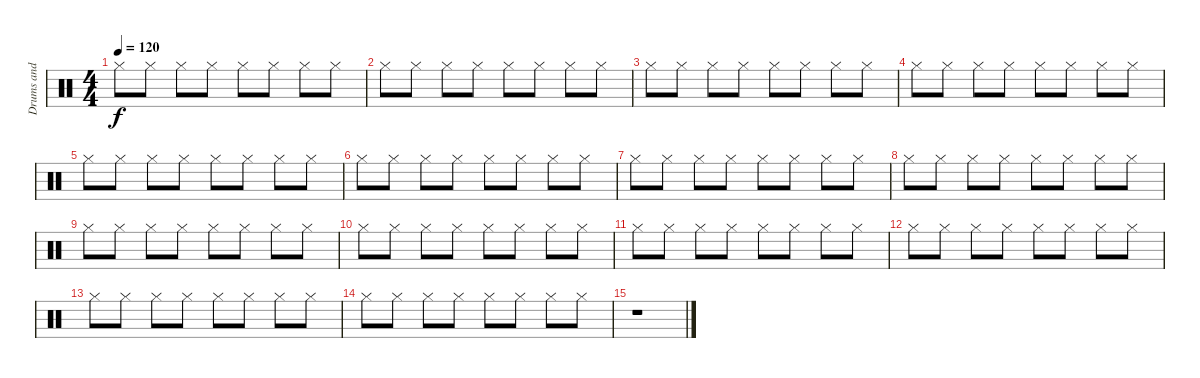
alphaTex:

\track ("Drums and Percussion" "Drums and ") {instrument percussion}
\staff {score}
\articulation defaults
\ts (4 4)
\tempo 120
\clef neutral
\ks c "Hi-Hat (closed)".8{dy f} "Hi-Hat (closed)".8 "Hi-Hat (closed)".8 "Hi-Hat (closed)".8 "Hi-Hat (closed)".8 "Hi-Hat (closed)".8 "Hi-Hat (closed)".8 "Hi-Hat (closed)".8
|
"Hi-Hat (closed)".8 "Hi-Hat (closed)".8 "Hi-Hat (closed)".8 "Hi-Hat (closed)".8 "Hi-Hat (closed)".8 "Hi-Hat (closed)".8 "Hi-Hat (closed)".8 "Hi-Hat (closed)".8 |
"Hi-Hat (closed)".8 "Hi-Hat (closed)".8 "Hi-Hat (closed)".8 "Hi-Hat (closed)".8 "Hi-Hat (closed)".8 "Hi-Hat (closed)".8 "Hi-Hat (closed)".8 "Hi-Hat (closed)".8 |
"Hi-Hat (closed)".8 "Hi-Hat (closed)".8 "Hi-Hat (closed)".8 "Hi-Hat (closed)".8 "Hi-Hat (closed)".8 "Hi-Hat (closed)".8 "Hi-Hat (closed)".8 "Hi-Hat (closed)".8 |
"Hi-Hat (closed)".8 "Hi-Hat (closed)".8 "Hi-Hat (closed)".8 "Hi-Hat (closed)".8 "Hi-Hat (closed)".8 "Hi-Hat (closed)".8 "Hi-Hat (closed)".8 "Hi-Hat (closed)".8 |
"Hi-Hat (closed)".8 "Hi-Hat (closed)".8 "Hi-Hat (closed)".8 "Hi-Hat (closed)".8 "Hi-Hat (closed)".8 "Hi-Hat (closed)".8 "Hi-Hat (closed)".8 "Hi-Hat (closed)".8 |
"Hi-Hat (closed)".8 "Hi-Hat (closed)".8 "Hi-Hat (closed)".8 "Hi-Hat (closed)".8 "Hi-Hat (closed)".8 "Hi-Hat (closed)".8 "Hi-Hat (closed)".8 "Hi-Hat (closed)".8 |
"Hi-Hat (closed)".8 "Hi-Hat (closed)".8 "Hi-Hat (closed)".8 "Hi-Hat (closed)".8 "Hi-Hat (closed)".8 "Hi-Hat (closed)".8 "Hi-Hat (closed)".8 "Hi-Hat (closed)".8 |
"Hi-Hat (closed)".8 "Hi-Hat (closed)".8 "Hi-Hat (closed)".8 "Hi-Hat (closed)".8 "Hi-Hat (closed)".8 "Hi-Hat (closed)".8 "Hi-Hat (closed)".8 "Hi-Hat (closed)".8 |
"Hi-Hat (closed)".8 "Hi-Hat (closed)".8 "Hi-Hat (closed)".8 "Hi-Hat (closed)".8 "Hi-Hat (closed)".8 "Hi-Hat (closed)".8 "Hi-Hat (closed)".8 "Hi-Hat (closed)".8 |
"Hi-Hat (closed)".8 "Hi-Hat (closed)".8 "Hi-Hat (closed)".8 "Hi-Hat (closed)".8 "Hi-Hat (closed)".8 "Hi-Hat (closed)".8 "Hi-Hat (closed)".8 "Hi-Hat (closed)".8 |
"Hi-Hat (closed)".8 "Hi-Hat (closed)".8 "Hi-Hat (closed)".8 "Hi-Hat (closed)".8 "Hi-Hat (closed)".8 "Hi-Hat (closed)".8 "Hi-Hat (closed)".8 "Hi-Hat (closed)".8 |
"Hi-Hat (closed)".8 "Hi-Hat (closed)".8 "Hi-Hat (closed)".8 "Hi-Hat (closed)".8 "Hi-Hat (closed)".8 "Hi-Hat (closed)".8 "Hi-Hat (closed)".8 "Hi-Hat (closed)".8 |
"Hi-Hat (closed)".8 "Hi-Hat (closed)".8 "Hi-Hat (closed)".8 "Hi-Hat (closed)".8 "Hi-Hat (closed)".8 "Hi-Hat (closed)".8 "Hi-Hat (closed)".8 "Hi-Hat (closed)".8 |
r.1
